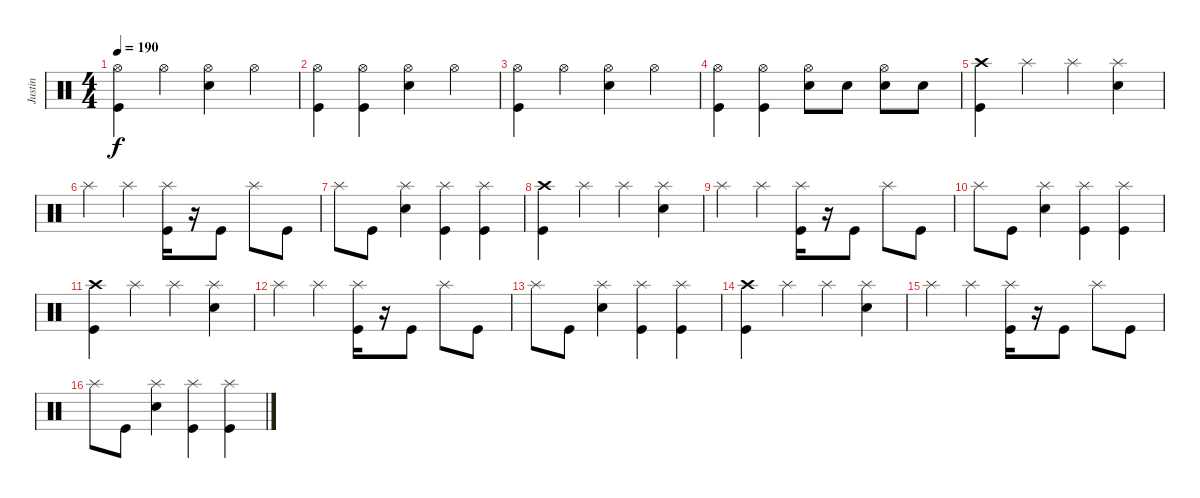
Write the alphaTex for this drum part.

\track ("Justin" "Justin") {instrument percussion}
\staff {score}
\articulation defaults
\ts (4 4)
\tempo 190
\clef neutral
\ks c
("Hi-Hat (open)" "Kick (hit)").4{dy f} "Hi-Hat (open)".4 ("Hi-Hat (open)" "Electric Snare (hit)").4 "Hi-Hat (open)".4 |
("Hi-Hat (open)" "Kick (hit)").4 ("Hi-Hat (open)" "Kick (hit)").4 ("Hi-Hat (open)" "Electric Snare (hit)").4 "Hi-Hat (open)".4 |
("Hi-Hat (open)" "Kick (hit)").4 "Hi-Hat (open)".4 ("Hi-Hat (open)" "Electric Snare (hit)").4 "Hi-Hat (open)".4 |
("Hi-Hat (open)" "Kick (hit)").4 ("Hi-Hat (open)" "Kick (hit)").4 ("Hi-Hat (open)" "Electric Snare (hit)").8 "Electric Snare (hit)".8 ("Hi-Hat (open)" "Electric Snare (hit)").8 "Electric Snare (hit)".8 |
("Crash high (hit)" "Kick (hit)").4 "Splash (hit)".4 "Splash (hit)".4 ("Splash (hit)" "Electric Snare (hit)").4 |
"Splash (hit)".4 "Splash (hit)".4 ("Splash (hit)" "Kick (hit)").16 r.16 "Kick (hit)".8 "Splash (hit)".8 "Kick (hit)".8 |
"Splash (hit)".8 "Kick (hit)".8 ("Splash (hit)" "Electric Snare (hit)").4 ("Splash (hit)" "Kick (hit)").4 ("Splash (hit)" "Kick (hit)").4 |
("Crash high (hit)" "Kick (hit)").4 "Splash (hit)".4 "Splash (hit)".4 ("Splash (hit)" "Electric Snare (hit)").4 |
"Splash (hit)".4 "Splash (hit)".4 ("Splash (hit)" "Kick (hit)").16 r.16 "Kick (hit)".8 "Splash (hit)".8 "Kick (hit)".8 |
"Splash (hit)".8 "Kick (hit)".8 ("Splash (hit)" "Electric Snare (hit)").4 ("Splash (hit)" "Kick (hit)").4 ("Splash (hit)" "Kick (hit)").4 |
("Crash high (hit)" "Kick (hit)").4 "Splash (hit)".4 "Splash (hit)".4 ("Splash (hit)" "Electric Snare (hit)").4 |
"Splash (hit)".4 "Splash (hit)".4 ("Splash (hit)" "Kick (hit)").16 r.16 "Kick (hit)".8 "Splash (hit)".8 "Kick (hit)".8 |
"Splash (hit)".8 "Kick (hit)".8 ("Splash (hit)" "Electric Snare (hit)").4 ("Splash (hit)" "Kick (hit)").4 ("Splash (hit)" "Kick (hit)").4 |
("Crash high (hit)" "Kick (hit)").4 "Splash (hit)".4 "Splash (hit)".4 ("Splash (hit)" "Electric Snare (hit)").4 |
"Splash (hit)".4 "Splash (hit)".4 ("Splash (hit)" "Kick (hit)").16 r.16 "Kick (hit)".8 "Splash (hit)".8 "Kick (hit)".8 |
"Splash (hit)".8 "Kick (hit)".8 ("Splash (hit)" "Electric Snare (hit)").4 ("Splash (hit)" "Kick (hit)").4 ("Splash (hit)" "Kick (hit)").4
